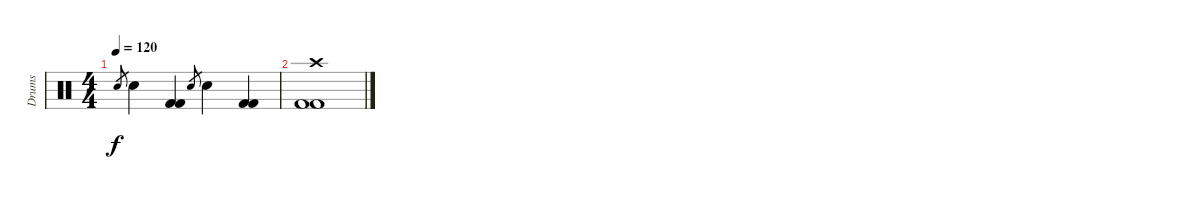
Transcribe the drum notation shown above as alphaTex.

\track ("Drums" "Drums") {instrument percussion}
\staff {score}
\articulation defaults
\ts (4 4)
\tempo 120
\clef neutral
\ks c "Electric Snare (hit)".8{gr dy f} "Electric Snare (hit)".4
("Kick (hit) 2" "Kick (hit) 2").4 "Electric Snare (hit)".8{gr} "Electric Snare (hit)".4 ("Kick (hit) 2" "Kick (hit) 2").4 |
("Crash high (hit)" "Kick (hit) 2" "Kick (hit) 2").1
